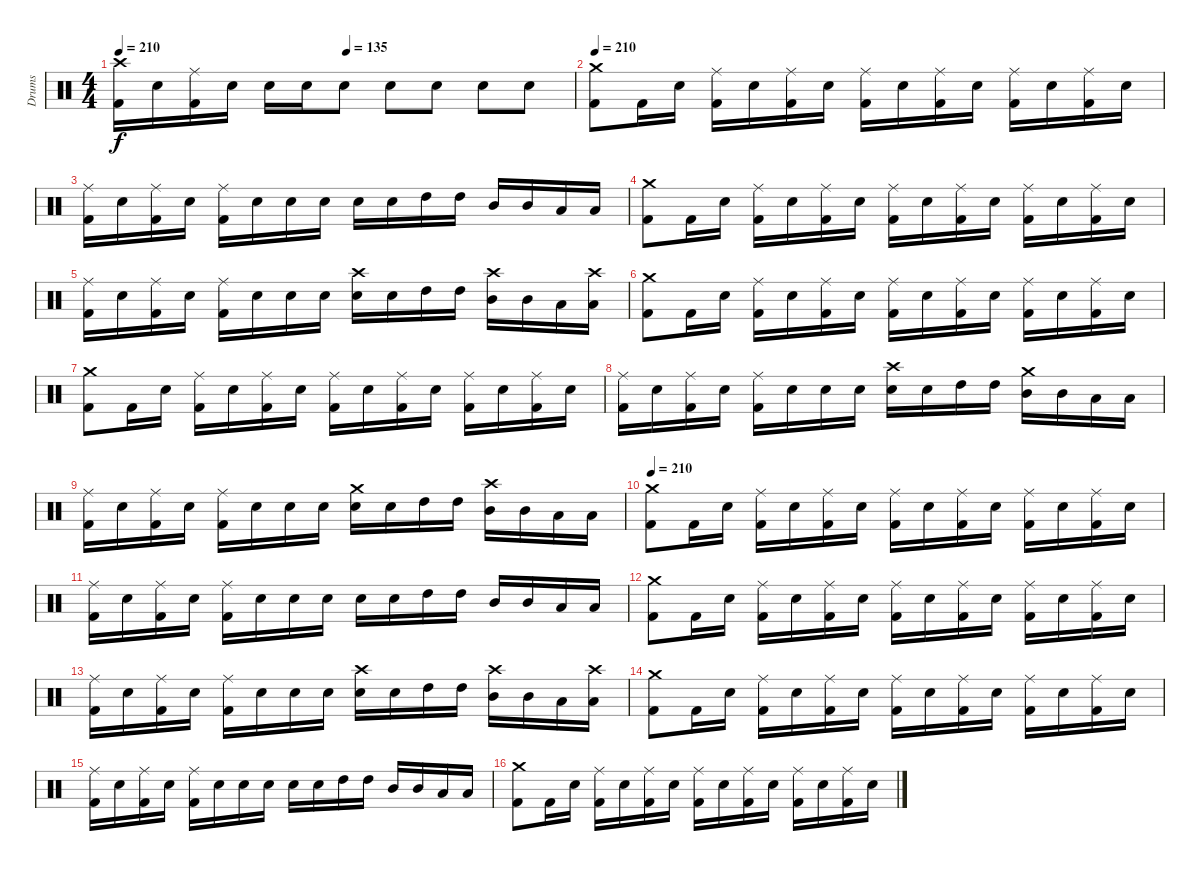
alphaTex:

\track ("Drums" "Drums") {instrument percussion}
\staff {score}
\articulation defaults
\ts (4 4)
\tempo 210
\tempo (135 0.5)
\tempo 210
\clef neutral
\ks c
("Kick (hit) 2" "Crash high (hit)").16{dy f} "Electric Snare (hit)".16 ("Kick (hit) 2" "Ride (middle)").16 "Electric Snare (hit)".16 "Electric Snare (hit)".16 "Electric Snare (hit)".16 "Electric Snare (hit)".8 "Electric Snare (hit)".8 "Electric Snare (hit)".8 "Electric Snare (hit)".8 "Electric Snare (hit)".8 |
\tempo 210
("Kick (hit) 2" "Crash medium (hit)").8 "Kick (hit) 2".16 "Electric Snare (hit)".16 ("Kick (hit) 2" "Ride (middle)").16 "Electric Snare (hit)".16 ("Kick (hit) 2" "Ride (middle)").16 "Electric Snare (hit)".16 ("Kick (hit) 2" "Ride (middle)").16 "Electric Snare (hit)".16 ("Kick (hit) 2" "Ride (middle)").16 "Electric Snare (hit)".16 ("Kick (hit) 2" "Ride (middle)").16 "Electric Snare (hit)".16 ("Kick (hit) 2" "Ride (middle)").16 "Electric Snare (hit)".16 |
("Kick (hit) 2" "Ride (middle)").16 "Electric Snare (hit)".16 ("Kick (hit) 2" "Ride (middle)").16 "Electric Snare (hit)".16 ("Kick (hit) 2" "Ride (middle)").16 "Electric Snare (hit)".16 "Electric Snare (hit)".16 "Electric Snare (hit)".16 "Electric Snare (hit)".16 "Electric Snare (hit)".16 "High Tom (hit)".16 "High Tom (hit)".16 "Mid Tom (hit)".16 "Mid Tom (hit)".16 "Low Tom (hit)".16 "Low Tom (hit)".16 |
("Kick (hit) 2" "Crash medium (hit)").8 "Kick (hit) 2".16 "Electric Snare (hit)".16 ("Kick (hit) 2" "Ride (middle)").16 "Electric Snare (hit)".16 ("Kick (hit) 2" "Ride (middle)").16 "Electric Snare (hit)".16 ("Kick (hit) 2" "Ride (middle)").16 "Electric Snare (hit)".16 ("Kick (hit) 2" "Ride (middle)").16 "Electric Snare (hit)".16 ("Kick (hit) 2" "Ride (middle)").16 "Electric Snare (hit)".16 ("Kick (hit) 2" "Ride (middle)").16 "Electric Snare (hit)".16 |
("Kick (hit) 2" "Ride (middle)").16 "Electric Snare (hit)".16 ("Kick (hit) 2" "Ride (middle)").16 "Electric Snare (hit)".16 ("Kick (hit) 2" "Ride (middle)").16 "Electric Snare (hit)".16 "Electric Snare (hit)".16 "Electric Snare (hit)".16 ("Crash high (hit)" "Electric Snare (hit)").16 "Electric Snare (hit)".16 "High Tom (hit)".16 "High Tom (hit)".16 ("Crash high (hit)" "Mid Tom (hit)").16 "Mid Tom (hit)".16 "Low Tom (hit)".16 ("Crash high (hit)" "Low Tom (hit)").16 |
("Kick (hit) 2" "Crash medium (hit)").8 "Kick (hit) 2".16 "Electric Snare (hit)".16 ("Kick (hit) 2" "Ride (middle)").16 "Electric Snare (hit)".16 ("Kick (hit) 2" "Ride (middle)").16 "Electric Snare (hit)".16 ("Kick (hit) 2" "Ride (middle)").16 "Electric Snare (hit)".16 ("Kick (hit) 2" "Ride (middle)").16 "Electric Snare (hit)".16 ("Kick (hit) 2" "Ride (middle)").16 "Electric Snare (hit)".16 ("Kick (hit) 2" "Ride (middle)").16 "Electric Snare (hit)".16 |
("Kick (hit) 2" "Crash medium (hit)").8 "Kick (hit) 2".16 "Electric Snare (hit)".16 ("Kick (hit) 2" "Ride (middle)").16 "Electric Snare (hit)".16 ("Kick (hit) 2" "Ride (middle)").16 "Electric Snare (hit)".16 ("Kick (hit) 2" "Ride (middle)").16 "Electric Snare (hit)".16 ("Kick (hit) 2" "Ride (middle)").16 "Electric Snare (hit)".16 ("Kick (hit) 2" "Ride (middle)").16 "Electric Snare (hit)".16 ("Kick (hit) 2" "Ride (middle)").16 "Electric Snare (hit)".16 |
("Kick (hit) 2" "Ride (middle)").16 "Electric Snare (hit)".16 ("Kick (hit) 2" "Ride (middle)").16 "Electric Snare (hit)".16 ("Kick (hit) 2" "Ride (middle)").16 "Electric Snare (hit)".16 "Electric Snare (hit)".16 "Electric Snare (hit)".16 ("Crash high (hit)" "Electric Snare (hit)").16 "Electric Snare (hit)".16 "High Tom (hit)".16 "High Tom (hit)".16 ("Crash medium (hit)" "Mid Tom (hit)").16 "Mid Tom (hit)".16 "Low Tom (hit)".16 "Low Tom (hit)".16 |
("Kick (hit) 2" "Ride (middle)").16 "Electric Snare (hit)".16 ("Kick (hit) 2" "Ride (middle)").16 "Electric Snare (hit)".16 ("Kick (hit) 2" "Ride (middle)").16 "Electric Snare (hit)".16 "Electric Snare (hit)".16 "Electric Snare (hit)".16 ("Crash medium (hit)" "Electric Snare (hit)").16 "Electric Snare (hit)".16 "High Tom (hit)".16 "High Tom (hit)".16 ("Crash high (hit)" "Mid Tom (hit)").16 "Mid Tom (hit)".16 "Low Tom (hit)".16 "Low Tom (hit)".16 |
\tempo 210
("Kick (hit) 2" "Crash medium (hit)").8 "Kick (hit) 2".16 "Electric Snare (hit)".16 ("Kick (hit) 2" "Ride (middle)").16 "Electric Snare (hit)".16 ("Kick (hit) 2" "Ride (middle)").16 "Electric Snare (hit)".16 ("Kick (hit) 2" "Ride (middle)").16 "Electric Snare (hit)".16 ("Kick (hit) 2" "Ride (middle)").16 "Electric Snare (hit)".16 ("Kick (hit) 2" "Ride (middle)").16 "Electric Snare (hit)".16 ("Kick (hit) 2" "Ride (middle)").16 "Electric Snare (hit)".16 |
("Kick (hit) 2" "Ride (middle)").16 "Electric Snare (hit)".16 ("Kick (hit) 2" "Ride (middle)").16 "Electric Snare (hit)".16 ("Kick (hit) 2" "Ride (middle)").16 "Electric Snare (hit)".16 "Electric Snare (hit)".16 "Electric Snare (hit)".16 "Electric Snare (hit)".16 "Electric Snare (hit)".16 "High Tom (hit)".16 "High Tom (hit)".16 "Mid Tom (hit)".16 "Mid Tom (hit)".16 "Low Tom (hit)".16 "Low Tom (hit)".16 |
("Kick (hit) 2" "Crash medium (hit)").8 "Kick (hit) 2".16 "Electric Snare (hit)".16 ("Kick (hit) 2" "Ride (middle)").16 "Electric Snare (hit)".16 ("Kick (hit) 2" "Ride (middle)").16 "Electric Snare (hit)".16 ("Kick (hit) 2" "Ride (middle)").16 "Electric Snare (hit)".16 ("Kick (hit) 2" "Ride (middle)").16 "Electric Snare (hit)".16 ("Kick (hit) 2" "Ride (middle)").16 "Electric Snare (hit)".16 ("Kick (hit) 2" "Ride (middle)").16 "Electric Snare (hit)".16 |
("Kick (hit) 2" "Ride (middle)").16 "Electric Snare (hit)".16 ("Kick (hit) 2" "Ride (middle)").16 "Electric Snare (hit)".16 ("Kick (hit) 2" "Ride (middle)").16 "Electric Snare (hit)".16 "Electric Snare (hit)".16 "Electric Snare (hit)".16 ("Crash high (hit)" "Electric Snare (hit)").16 "Electric Snare (hit)".16 "High Tom (hit)".16 "High Tom (hit)".16 ("Crash high (hit)" "Mid Tom (hit)").16 "Mid Tom (hit)".16 "Low Tom (hit)".16 ("Crash high (hit)" "Low Tom (hit)").16 |
("Kick (hit) 2" "Crash medium (hit)").8 "Kick (hit) 2".16 "Electric Snare (hit)".16 ("Kick (hit) 2" "Ride (middle)").16 "Electric Snare (hit)".16 ("Kick (hit) 2" "Ride (middle)").16 "Electric Snare (hit)".16 ("Kick (hit) 2" "Ride (middle)").16 "Electric Snare (hit)".16 ("Kick (hit) 2" "Ride (middle)").16 "Electric Snare (hit)".16 ("Kick (hit) 2" "Ride (middle)").16 "Electric Snare (hit)".16 ("Kick (hit) 2" "Ride (middle)").16 "Electric Snare (hit)".16 |
("Kick (hit) 2" "Ride (middle)").16 "Electric Snare (hit)".16 ("Kick (hit) 2" "Ride (middle)").16 "Electric Snare (hit)".16 ("Kick (hit) 2" "Ride (middle)").16 "Electric Snare (hit)".16 "Electric Snare (hit)".16 "Electric Snare (hit)".16 "Electric Snare (hit)".16 "Electric Snare (hit)".16 "High Tom (hit)".16 "High Tom (hit)".16 "Mid Tom (hit)".16 "Mid Tom (hit)".16 "Low Tom (hit)".16 "Low Tom (hit)".16 |
("Kick (hit) 2" "Crash medium (hit)").8 "Kick (hit) 2".16 "Electric Snare (hit)".16 ("Kick (hit) 2" "Ride (middle)").16 "Electric Snare (hit)".16 ("Kick (hit) 2" "Ride (middle)").16 "Electric Snare (hit)".16 ("Kick (hit) 2" "Ride (middle)").16 "Electric Snare (hit)".16 ("Kick (hit) 2" "Ride (middle)").16 "Electric Snare (hit)".16 ("Kick (hit) 2" "Ride (middle)").16 "Electric Snare (hit)".16 ("Kick (hit) 2" "Ride (middle)").16 "Electric Snare (hit)".16
